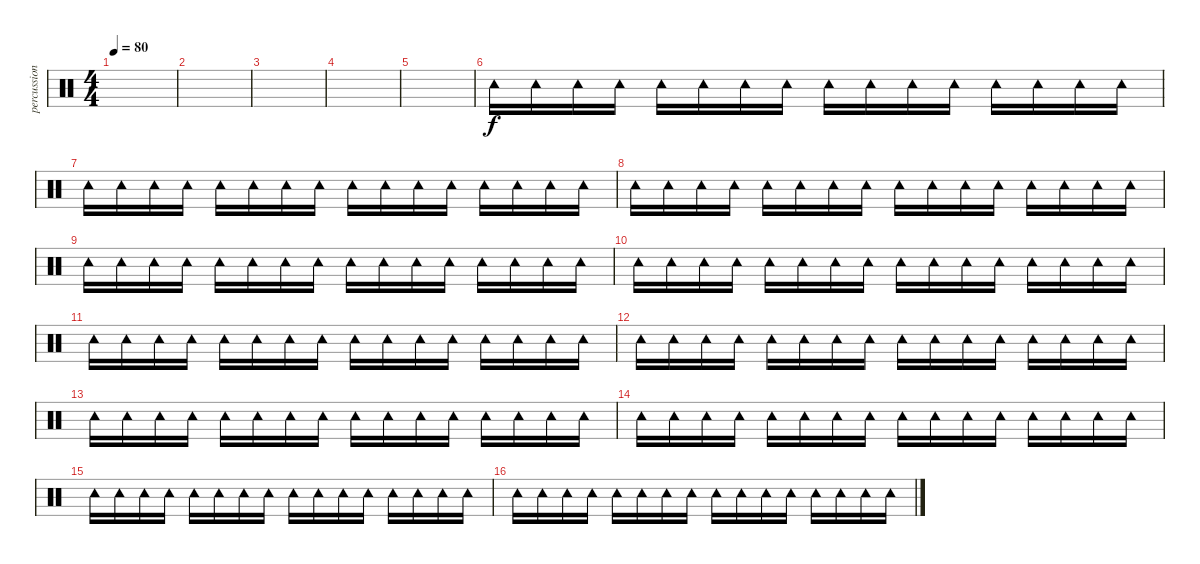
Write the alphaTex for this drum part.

\track ("percussion" "percussion") {instrument percussion}
\staff {score}
\articulation defaults
\ts (4 4)
\tempo 80
\clef neutral
\ks c
|
|
|
|
|
"Tambourine (hit)".16 "Tambourine (hit)".16 "Tambourine (hit)".16 "Tambourine (hit)".16 "Tambourine (hit)".16 "Tambourine (hit)".16 "Tambourine (hit)".16 "Tambourine (hit)".16 "Tambourine (hit)".16 "Tambourine (hit)".16 "Tambourine (hit)".16 "Tambourine (hit)".16 "Tambourine (hit)".16 "Tambourine (hit)".16 "Tambourine (hit)".16 "Tambourine (hit)".16 |
"Tambourine (hit)".16 "Tambourine (hit)".16 "Tambourine (hit)".16 "Tambourine (hit)".16 "Tambourine (hit)".16 "Tambourine (hit)".16 "Tambourine (hit)".16 "Tambourine (hit)".16 "Tambourine (hit)".16 "Tambourine (hit)".16 "Tambourine (hit)".16 "Tambourine (hit)".16 "Tambourine (hit)".16 "Tambourine (hit)".16 "Tambourine (hit)".16 "Tambourine (hit)".16 |
"Tambourine (hit)".16 "Tambourine (hit)".16 "Tambourine (hit)".16 "Tambourine (hit)".16 "Tambourine (hit)".16 "Tambourine (hit)".16 "Tambourine (hit)".16 "Tambourine (hit)".16 "Tambourine (hit)".16 "Tambourine (hit)".16 "Tambourine (hit)".16 "Tambourine (hit)".16 "Tambourine (hit)".16 "Tambourine (hit)".16 "Tambourine (hit)".16 "Tambourine (hit)".16 |
"Tambourine (hit)".16 "Tambourine (hit)".16 "Tambourine (hit)".16 "Tambourine (hit)".16 "Tambourine (hit)".16 "Tambourine (hit)".16 "Tambourine (hit)".16 "Tambourine (hit)".16 "Tambourine (hit)".16 "Tambourine (hit)".16 "Tambourine (hit)".16 "Tambourine (hit)".16 "Tambourine (hit)".16 "Tambourine (hit)".16 "Tambourine (hit)".16 "Tambourine (hit)".16 |
"Tambourine (hit)".16 "Tambourine (hit)".16 "Tambourine (hit)".16 "Tambourine (hit)".16 "Tambourine (hit)".16 "Tambourine (hit)".16 "Tambourine (hit)".16 "Tambourine (hit)".16 "Tambourine (hit)".16 "Tambourine (hit)".16 "Tambourine (hit)".16 "Tambourine (hit)".16 "Tambourine (hit)".16 "Tambourine (hit)".16 "Tambourine (hit)".16 "Tambourine (hit)".16 |
"Tambourine (hit)".16 "Tambourine (hit)".16 "Tambourine (hit)".16 "Tambourine (hit)".16 "Tambourine (hit)".16 "Tambourine (hit)".16 "Tambourine (hit)".16 "Tambourine (hit)".16 "Tambourine (hit)".16 "Tambourine (hit)".16 "Tambourine (hit)".16 "Tambourine (hit)".16 "Tambourine (hit)".16 "Tambourine (hit)".16 "Tambourine (hit)".16 "Tambourine (hit)".16 |
"Tambourine (hit)".16 "Tambourine (hit)".16 "Tambourine (hit)".16 "Tambourine (hit)".16 "Tambourine (hit)".16 "Tambourine (hit)".16 "Tambourine (hit)".16 "Tambourine (hit)".16 "Tambourine (hit)".16 "Tambourine (hit)".16 "Tambourine (hit)".16 "Tambourine (hit)".16 "Tambourine (hit)".16 "Tambourine (hit)".16 "Tambourine (hit)".16 "Tambourine (hit)".16 |
"Tambourine (hit)".16 "Tambourine (hit)".16 "Tambourine (hit)".16 "Tambourine (hit)".16 "Tambourine (hit)".16 "Tambourine (hit)".16 "Tambourine (hit)".16 "Tambourine (hit)".16 "Tambourine (hit)".16 "Tambourine (hit)".16 "Tambourine (hit)".16 "Tambourine (hit)".16 "Tambourine (hit)".16 "Tambourine (hit)".16 "Tambourine (hit)".16 "Tambourine (hit)".16 |
"Tambourine (hit)".16 "Tambourine (hit)".16 "Tambourine (hit)".16 "Tambourine (hit)".16 "Tambourine (hit)".16 "Tambourine (hit)".16 "Tambourine (hit)".16 "Tambourine (hit)".16 "Tambourine (hit)".16 "Tambourine (hit)".16 "Tambourine (hit)".16 "Tambourine (hit)".16 "Tambourine (hit)".16 "Tambourine (hit)".16 "Tambourine (hit)".16 "Tambourine (hit)".16 |
"Tambourine (hit)".16 "Tambourine (hit)".16 "Tambourine (hit)".16 "Tambourine (hit)".16 "Tambourine (hit)".16 "Tambourine (hit)".16 "Tambourine (hit)".16 "Tambourine (hit)".16 "Tambourine (hit)".16 "Tambourine (hit)".16 "Tambourine (hit)".16 "Tambourine (hit)".16 "Tambourine (hit)".16 "Tambourine (hit)".16 "Tambourine (hit)".16 "Tambourine (hit)".16 |
"Tambourine (hit)".16 "Tambourine (hit)".16 "Tambourine (hit)".16 "Tambourine (hit)".16 "Tambourine (hit)".16 "Tambourine (hit)".16 "Tambourine (hit)".16 "Tambourine (hit)".16 "Tambourine (hit)".16 "Tambourine (hit)".16 "Tambourine (hit)".16 "Tambourine (hit)".16 "Tambourine (hit)".16 "Tambourine (hit)".16 "Tambourine (hit)".16 "Tambourine (hit)".16
